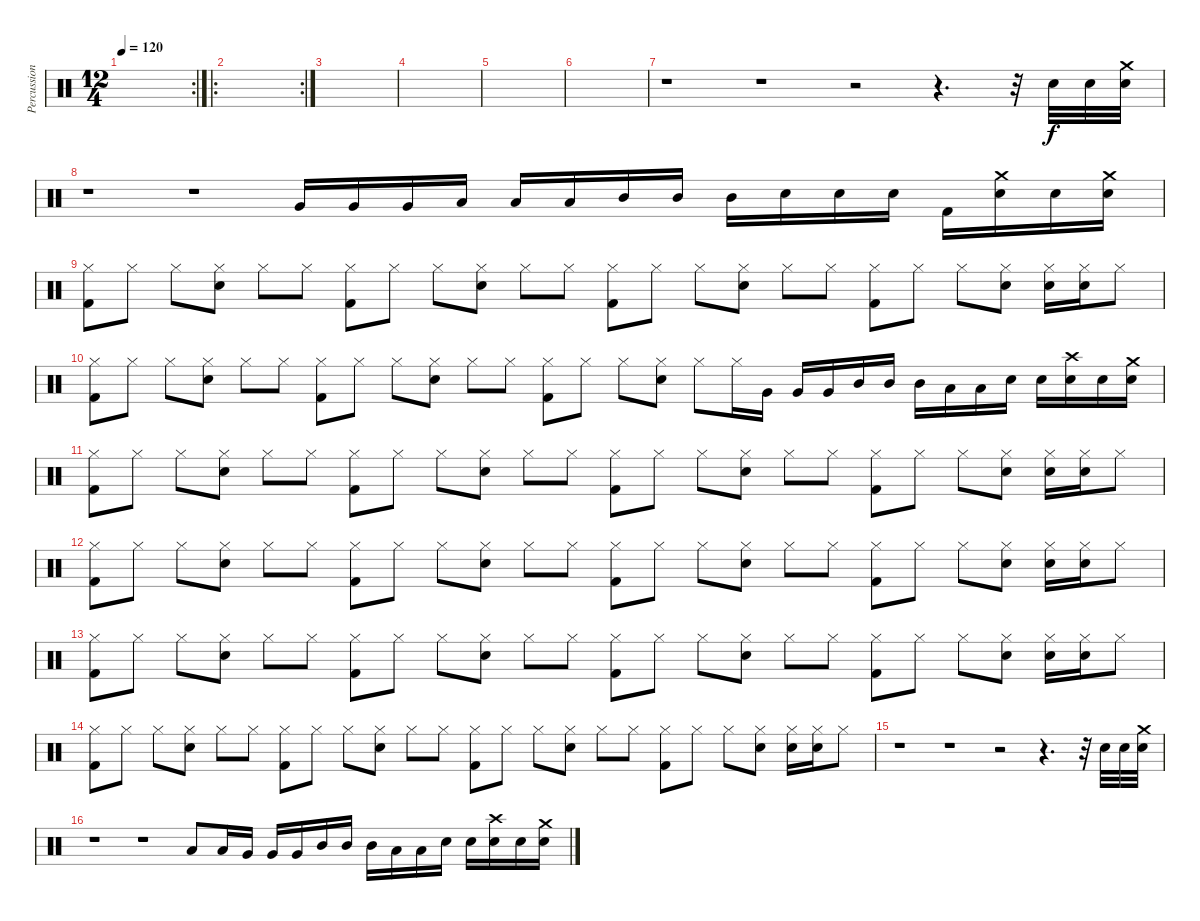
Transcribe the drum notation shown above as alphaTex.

\track ("Percussions" "Percussion") {instrument percussion}
\staff {score}
\articulation defaults
\rc 2
\ts (12 4)
\tempo 120
\clef neutral
\ks c
|
\ro
\rc 2
|
|
|
|
|
r.1 r.1 r.2 r.4{d} r.32 "Electric Snare (hit)".32 "Electric Snare (hit)".32 ("Electric Snare (hit)" "Crash medium (hit)").32 |
r.1 r.1 "Very Low Tom (hit)".16 "Very Low Tom (hit)".16 "Very Low Tom (hit)".16 "Low Tom (hit)".16 "Low Tom (hit)".16 "Low Tom (hit)".16 "Mid Tom (hit)".16 "Mid Tom (hit)".16 "Mid Tom (hit)".16 "Snare (hit) 2".16 "Snare (hit) 2".16 "Snare (hit) 2".16 "Kick (hit) 2".16 ("Electric Snare (hit)" "Crash medium (hit)").16 "Electric Snare (hit)".16 ("Electric Snare (hit)" "Crash medium (hit)").16 |
("Hi-Hat (closed)" "Kick (hit) 2").8 "Hi-Hat (closed)".8 "Hi-Hat (closed)".8 ("Hi-Hat (closed)" "Electric Snare (hit)").8 "Hi-Hat (closed)".8 "Hi-Hat (closed)".8 ("Hi-Hat (closed)" "Kick (hit) 2").8 "Hi-Hat (closed)".8 "Hi-Hat (closed)".8 ("Hi-Hat (closed)" "Electric Snare (hit)").8 "Hi-Hat (closed)".8 "Hi-Hat (closed)".8 ("Hi-Hat (closed)" "Kick (hit) 2").8 "Hi-Hat (closed)".8 "Hi-Hat (closed)".8 ("Hi-Hat (closed)" "Electric Snare (hit)").8 "Hi-Hat (closed)".8 "Hi-Hat (closed)".8 ("Hi-Hat (closed)" "Kick (hit) 2").8 "Hi-Hat (closed)".8 "Hi-Hat (closed)".8 ("Hi-Hat (closed)" "Electric Snare (hit)").8 ("Electric Snare (hit)" "Hi-Hat (closed)").16 ("Electric Snare (hit)" "Hi-Hat (closed)").16 "Hi-Hat (closed)".8 |
("Hi-Hat (closed)" "Kick (hit) 2").8 "Hi-Hat (closed)".8 "Hi-Hat (closed)".8 ("Hi-Hat (closed)" "Electric Snare (hit)").8 "Hi-Hat (closed)".8 "Hi-Hat (closed)".8 ("Hi-Hat (closed)" "Kick (hit) 2").8 "Hi-Hat (closed)".8 "Hi-Hat (closed)".8 ("Hi-Hat (closed)" "Electric Snare (hit)").8 "Hi-Hat (closed)".8 "Hi-Hat (closed)".8 ("Hi-Hat (closed)" "Kick (hit) 2").8 "Hi-Hat (closed)".8 "Hi-Hat (closed)".8 ("Hi-Hat (closed)" "Electric Snare (hit)").8 "Hi-Hat (closed)".8 "Hi-Hat (closed)".16 "Very Low Tom (hit)".16 "Very Low Tom (hit)".16 "Very Low Tom (hit)".16 "Mid Tom (hit)".16 "Mid Tom (hit)".16 "Mid Tom (hit)".16 "Low Tom (hit)".16 "Low Tom (hit)".16 "Snare (hit) 2".16 "Snare (hit) 2".16 ("Electric Snare (hit)" "Crash high (hit)").16 "Electric Snare (hit)".16 ("Electric Snare (hit)" "Crash medium (hit)").16 |
("Hi-Hat (closed)" "Kick (hit) 2").8 "Hi-Hat (closed)".8 "Hi-Hat (closed)".8 ("Hi-Hat (closed)" "Electric Snare (hit)").8 "Hi-Hat (closed)".8 "Hi-Hat (closed)".8 ("Hi-Hat (closed)" "Kick (hit) 2").8 "Hi-Hat (closed)".8 "Hi-Hat (closed)".8 ("Hi-Hat (closed)" "Electric Snare (hit)").8 "Hi-Hat (closed)".8 "Hi-Hat (closed)".8 ("Hi-Hat (closed)" "Kick (hit) 2").8 "Hi-Hat (closed)".8 "Hi-Hat (closed)".8 ("Hi-Hat (closed)" "Electric Snare (hit)").8 "Hi-Hat (closed)".8 "Hi-Hat (closed)".8 ("Hi-Hat (closed)" "Kick (hit) 2").8 "Hi-Hat (closed)".8 "Hi-Hat (closed)".8 ("Hi-Hat (closed)" "Electric Snare (hit)").8 ("Electric Snare (hit)" "Hi-Hat (closed)").16 ("Electric Snare (hit)" "Hi-Hat (closed)").16 "Hi-Hat (closed)".8 |
("Hi-Hat (closed)" "Kick (hit) 2").8 "Hi-Hat (closed)".8 "Hi-Hat (closed)".8 ("Hi-Hat (closed)" "Electric Snare (hit)").8 "Hi-Hat (closed)".8 "Hi-Hat (closed)".8 ("Hi-Hat (closed)" "Kick (hit) 2").8 "Hi-Hat (closed)".8 "Hi-Hat (closed)".8 ("Hi-Hat (closed)" "Electric Snare (hit)").8 "Hi-Hat (closed)".8 "Hi-Hat (closed)".8 ("Hi-Hat (closed)" "Kick (hit) 2").8 "Hi-Hat (closed)".8 "Hi-Hat (closed)".8 ("Hi-Hat (closed)" "Electric Snare (hit)").8 "Hi-Hat (closed)".8 "Hi-Hat (closed)".8 ("Hi-Hat (closed)" "Kick (hit) 2").8 "Hi-Hat (closed)".8 "Hi-Hat (closed)".8 ("Hi-Hat (closed)" "Electric Snare (hit)").8 ("Electric Snare (hit)" "Hi-Hat (closed)").16 ("Electric Snare (hit)" "Hi-Hat (closed)").16 "Hi-Hat (closed)".8 |
("Hi-Hat (closed)" "Kick (hit) 2").8 "Hi-Hat (closed)".8 "Hi-Hat (closed)".8 ("Hi-Hat (closed)" "Electric Snare (hit)").8 "Hi-Hat (closed)".8 "Hi-Hat (closed)".8 ("Hi-Hat (closed)" "Kick (hit) 2").8 "Hi-Hat (closed)".8 "Hi-Hat (closed)".8 ("Hi-Hat (closed)" "Electric Snare (hit)").8 "Hi-Hat (closed)".8 "Hi-Hat (closed)".8 ("Hi-Hat (closed)" "Kick (hit) 2").8 "Hi-Hat (closed)".8 "Hi-Hat (closed)".8 ("Hi-Hat (closed)" "Electric Snare (hit)").8 "Hi-Hat (closed)".8 "Hi-Hat (closed)".8 ("Hi-Hat (closed)" "Kick (hit) 2").8 "Hi-Hat (closed)".8 "Hi-Hat (closed)".8 ("Hi-Hat (closed)" "Electric Snare (hit)").8 ("Electric Snare (hit)" "Hi-Hat (closed)").16 ("Electric Snare (hit)" "Hi-Hat (closed)").16 "Hi-Hat (closed)".8 |
("Hi-Hat (closed)" "Kick (hit) 2").8 "Hi-Hat (closed)".8 "Hi-Hat (closed)".8 ("Hi-Hat (closed)" "Electric Snare (hit)").8 "Hi-Hat (closed)".8 "Hi-Hat (closed)".8 ("Hi-Hat (closed)" "Kick (hit) 2").8 "Hi-Hat (closed)".8 "Hi-Hat (closed)".8 ("Hi-Hat (closed)" "Electric Snare (hit)").8 "Hi-Hat (closed)".8 "Hi-Hat (closed)".8 ("Hi-Hat (closed)" "Kick (hit) 2").8 "Hi-Hat (closed)".8 "Hi-Hat (closed)".8 ("Hi-Hat (closed)" "Electric Snare (hit)").8 "Hi-Hat (closed)".8 "Hi-Hat (closed)".8 ("Hi-Hat (closed)" "Kick (hit) 2").8 "Hi-Hat (closed)".8 "Hi-Hat (closed)".8 ("Hi-Hat (closed)" "Electric Snare (hit)").8 ("Electric Snare (hit)" "Hi-Hat (closed)").16 ("Electric Snare (hit)" "Hi-Hat (closed)").16 "Hi-Hat (closed)".8 |
r.1 r.1 r.2 r.4{d} r.32 "Electric Snare (hit)".32 "Electric Snare (hit)".32 ("Electric Snare (hit)" "Crash medium (hit)").32 |
r.1 r.1 "Low Tom (hit)".8 "Low Tom (hit)".16 "Very Low Tom (hit)".16 "Very Low Tom (hit)".16 "Very Low Tom (hit)".16 "Mid Tom (hit)".16 "Mid Tom (hit)".16 "Mid Tom (hit)".16 "Low Tom (hit)".16 "Low Tom (hit)".16 "Snare (hit) 2".16 "Snare (hit) 2".16 ("Electric Snare (hit)" "Crash high (hit)").16 "Electric Snare (hit)".16 ("Electric Snare (hit)" "Crash medium (hit)").16
